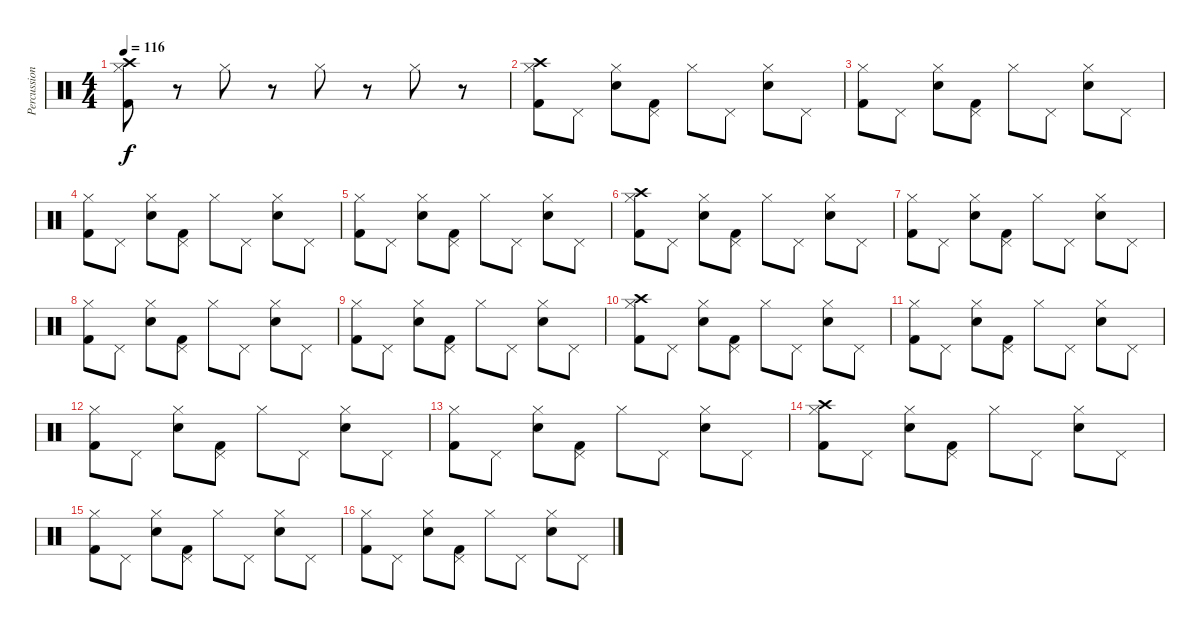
\track ("Percussions" "Percussion") {instrument percussion}
\staff {score}
\articulation defaults
\ts (4 4)
\tempo 116
\clef neutral
\ks c
("Hi-Hat (closed)" "Crash high (hit)" "Kick (hit) 2").8{dy f} r.8 "Hi-Hat (closed)".8 r.8 "Hi-Hat (closed)".8 r.8 "Hi-Hat (closed)".8 r.8 |
("Hi-Hat (closed)" "Crash high (hit)" "Kick (hit) 2").8 "Pedal Hi-Hat (hit)".8 ("Hi-Hat (closed)" "Snare (hit) 2").8 ("Pedal Hi-Hat (hit)" "Kick (hit) 2").8 "Hi-Hat (closed)".8 "Pedal Hi-Hat (hit)".8 ("Hi-Hat (closed)" "Snare (hit) 2").8 "Pedal Hi-Hat (hit)".8 |
("Hi-Hat (closed)" "Kick (hit) 2").8 "Pedal Hi-Hat (hit)".8 ("Hi-Hat (closed)" "Snare (hit) 2").8 ("Pedal Hi-Hat (hit)" "Kick (hit) 2").8 "Hi-Hat (closed)".8 "Pedal Hi-Hat (hit)".8 ("Hi-Hat (closed)" "Snare (hit) 2").8 "Pedal Hi-Hat (hit)".8 |
("Hi-Hat (closed)" "Kick (hit) 2").8 "Pedal Hi-Hat (hit)".8 ("Hi-Hat (closed)" "Snare (hit) 2").8 ("Pedal Hi-Hat (hit)" "Kick (hit) 2").8 "Hi-Hat (closed)".8 "Pedal Hi-Hat (hit)".8 ("Hi-Hat (closed)" "Snare (hit) 2").8 "Pedal Hi-Hat (hit)".8 |
("Hi-Hat (closed)" "Kick (hit) 2").8 "Pedal Hi-Hat (hit)".8 ("Hi-Hat (closed)" "Snare (hit) 2").8 ("Pedal Hi-Hat (hit)" "Kick (hit) 2").8 "Hi-Hat (closed)".8 "Pedal Hi-Hat (hit)".8 ("Hi-Hat (closed)" "Snare (hit) 2").8 "Pedal Hi-Hat (hit)".8 |
("Hi-Hat (closed)" "Crash high (hit)" "Kick (hit) 2").8 "Pedal Hi-Hat (hit)".8 ("Hi-Hat (closed)" "Snare (hit) 2").8 ("Pedal Hi-Hat (hit)" "Kick (hit) 2").8 "Hi-Hat (closed)".8 "Pedal Hi-Hat (hit)".8 ("Hi-Hat (closed)" "Snare (hit) 2").8 "Pedal Hi-Hat (hit)".8 |
("Hi-Hat (closed)" "Kick (hit) 2").8 "Pedal Hi-Hat (hit)".8 ("Hi-Hat (closed)" "Snare (hit) 2").8 ("Pedal Hi-Hat (hit)" "Kick (hit) 2").8 "Hi-Hat (closed)".8 "Pedal Hi-Hat (hit)".8 ("Hi-Hat (closed)" "Snare (hit) 2").8 "Pedal Hi-Hat (hit)".8 |
("Hi-Hat (closed)" "Kick (hit) 2").8 "Pedal Hi-Hat (hit)".8 ("Hi-Hat (closed)" "Snare (hit) 2").8 ("Pedal Hi-Hat (hit)" "Kick (hit) 2").8 "Hi-Hat (closed)".8 "Pedal Hi-Hat (hit)".8 ("Hi-Hat (closed)" "Snare (hit) 2").8 "Pedal Hi-Hat (hit)".8 |
("Hi-Hat (closed)" "Kick (hit) 2").8 "Pedal Hi-Hat (hit)".8 ("Hi-Hat (closed)" "Snare (hit) 2").8 ("Pedal Hi-Hat (hit)" "Kick (hit) 2").8 "Hi-Hat (closed)".8 "Pedal Hi-Hat (hit)".8 ("Hi-Hat (closed)" "Snare (hit) 2").8 "Pedal Hi-Hat (hit)".8 |
("Hi-Hat (closed)" "Crash high (hit)" "Kick (hit) 2").8 "Pedal Hi-Hat (hit)".8 ("Hi-Hat (closed)" "Snare (hit) 2").8 ("Pedal Hi-Hat (hit)" "Kick (hit) 2").8 "Hi-Hat (closed)".8 "Pedal Hi-Hat (hit)".8 ("Hi-Hat (closed)" "Snare (hit) 2").8 "Pedal Hi-Hat (hit)".8 |
("Hi-Hat (closed)" "Kick (hit) 2").8 "Pedal Hi-Hat (hit)".8 ("Hi-Hat (closed)" "Snare (hit) 2").8 ("Pedal Hi-Hat (hit)" "Kick (hit) 2").8 "Hi-Hat (closed)".8 "Pedal Hi-Hat (hit)".8 ("Hi-Hat (closed)" "Snare (hit) 2").8 "Pedal Hi-Hat (hit)".8 |
("Hi-Hat (closed)" "Kick (hit) 2").8 "Pedal Hi-Hat (hit)".8 ("Hi-Hat (closed)" "Snare (hit) 2").8 ("Pedal Hi-Hat (hit)" "Kick (hit) 2").8 "Hi-Hat (closed)".8 "Pedal Hi-Hat (hit)".8 ("Hi-Hat (closed)" "Snare (hit) 2").8 "Pedal Hi-Hat (hit)".8 |
("Hi-Hat (closed)" "Kick (hit) 2").8 "Pedal Hi-Hat (hit)".8 ("Hi-Hat (closed)" "Snare (hit) 2").8 ("Pedal Hi-Hat (hit)" "Kick (hit) 2").8 "Hi-Hat (closed)".8 "Pedal Hi-Hat (hit)".8 ("Hi-Hat (closed)" "Snare (hit) 2").8 "Pedal Hi-Hat (hit)".8 |
("Hi-Hat (closed)" "Crash high (hit)" "Kick (hit) 2").8 "Pedal Hi-Hat (hit)".8 ("Hi-Hat (closed)" "Snare (hit) 2").8 ("Pedal Hi-Hat (hit)" "Kick (hit) 2").8 "Hi-Hat (closed)".8 "Pedal Hi-Hat (hit)".8 ("Hi-Hat (closed)" "Snare (hit) 2").8 "Pedal Hi-Hat (hit)".8 |
("Hi-Hat (closed)" "Kick (hit) 2").8 "Pedal Hi-Hat (hit)".8 ("Hi-Hat (closed)" "Snare (hit) 2").8 ("Pedal Hi-Hat (hit)" "Kick (hit) 2").8 "Hi-Hat (closed)".8 "Pedal Hi-Hat (hit)".8 ("Hi-Hat (closed)" "Snare (hit) 2").8 "Pedal Hi-Hat (hit)".8 |
("Hi-Hat (closed)" "Kick (hit) 2").8 "Pedal Hi-Hat (hit)".8 ("Hi-Hat (closed)" "Snare (hit) 2").8 ("Pedal Hi-Hat (hit)" "Kick (hit) 2").8 "Hi-Hat (closed)".8 "Pedal Hi-Hat (hit)".8 ("Hi-Hat (closed)" "Snare (hit) 2").8 "Pedal Hi-Hat (hit)".8
